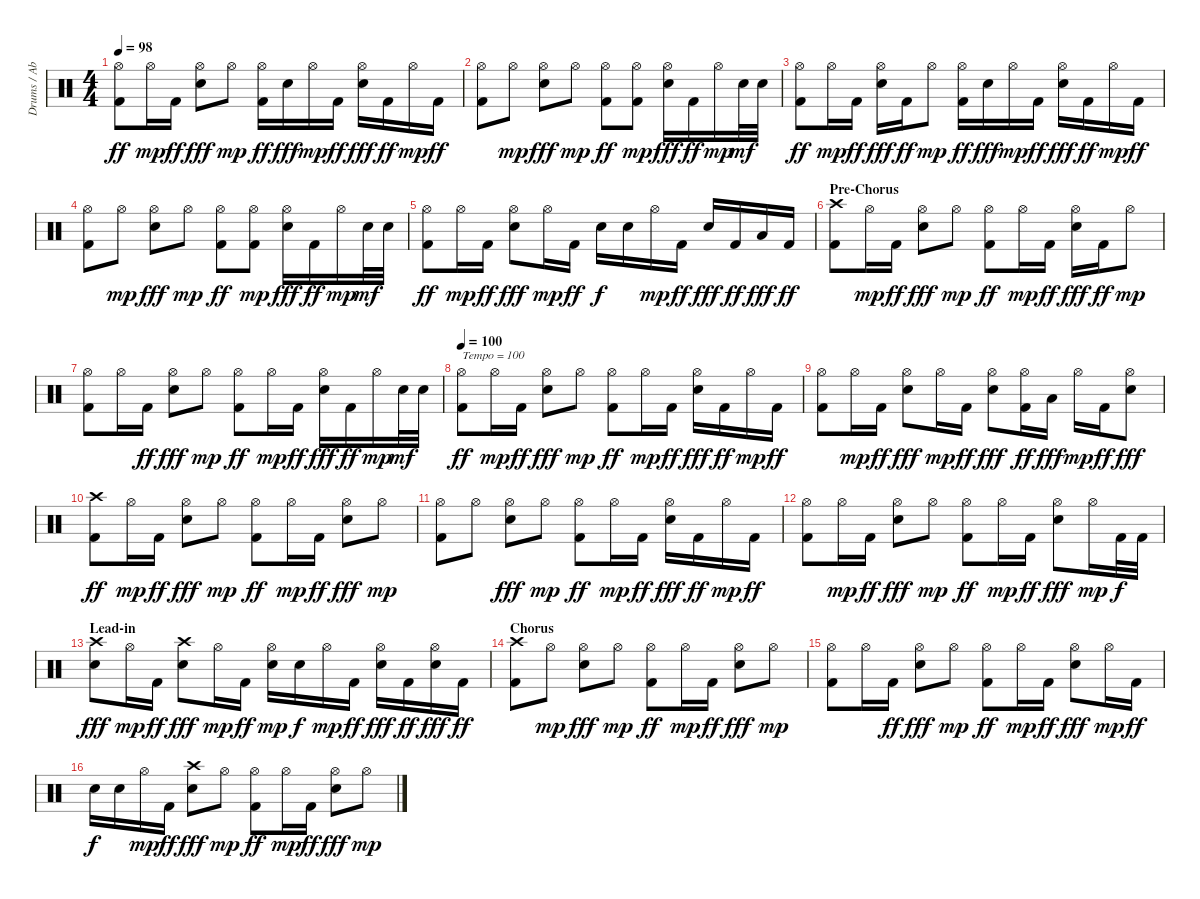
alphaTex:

\track ("Drums / Abe Cunningham" "Drums / Ab") {instrument percussion}
\staff {score}
\articulation defaults
\ts (4 4)
\tempo 98
\clef neutral
\ks c
("Hi-Hat (open)" "Kick (hit) 2").8{dy ff} "Hi-Hat (open)".16{dy mp} "Kick (hit) 2".16{dy ff} ("Hi-Hat (open)" "Electric Snare (hit)").8{dy fff} "Hi-Hat (open)".8{dy mp} ("Hi-Hat (open)" "Kick (hit) 2").16{dy ff} "Electric Snare (hit)".16{dy fff} "Hi-Hat (open)".16{dy mp} "Kick (hit) 2".16{dy ff} ("Hi-Hat (open)" "Electric Snare (hit)").16{dy fff} "Kick (hit) 2".16{dy ff} "Hi-Hat (open)".16{dy mp} "Kick (hit) 2".16{dy ff} |
("Hi-Hat (open)" "Kick (hit) 2").8 "Hi-Hat (open)".8{dy mp} ("Hi-Hat (open)" "Electric Snare (hit)").8{dy fff} "Hi-Hat (open)".8{dy mp} ("Hi-Hat (open)" "Kick (hit) 2").8{dy ff} ("Hi-Hat (open)" "Kick (hit) 2").8{dy mp} ("Hi-Hat (open)" "Electric Snare (hit)").16{dy fff} "Kick (hit) 2".16{dy ff} "Hi-Hat (open)".16{dy mp} "Electric Snare (hit)".32{dy mf} "Electric Snare (hit)".32 |
("Hi-Hat (open)" "Kick (hit) 2").8{dy ff} "Hi-Hat (open)".16{dy mp} "Kick (hit) 2".16{dy ff} ("Hi-Hat (open)" "Electric Snare (hit)").16{dy fff} "Kick (hit) 2".16{dy ff} "Hi-Hat (open)".8{dy mp} ("Hi-Hat (open)" "Kick (hit) 2").16{dy ff} "Electric Snare (hit)".16{dy fff} "Hi-Hat (open)".16{dy mp} "Kick (hit) 2".16{dy ff} ("Hi-Hat (open)" "Electric Snare (hit)").16{dy fff} "Kick (hit) 2".16{dy ff} "Hi-Hat (open)".16{dy mp} "Kick (hit) 2".16{dy ff} |
("Hi-Hat (open)" "Kick (hit) 2").8 "Hi-Hat (open)".8{dy mp} ("Hi-Hat (open)" "Electric Snare (hit)").8{dy fff} "Hi-Hat (open)".8{dy mp} ("Hi-Hat (open)" "Kick (hit) 2").8{dy ff} ("Hi-Hat (open)" "Kick (hit) 2").8{dy mp} ("Hi-Hat (open)" "Electric Snare (hit)").16{dy fff} "Kick (hit) 2".16{dy ff} "Hi-Hat (open)".16{dy mp} "Electric Snare (hit)".32{dy mf} "Electric Snare (hit)".32 |
("Hi-Hat (open)" "Kick (hit) 2").8{dy ff} "Hi-Hat (open)".16{dy mp} "Kick (hit) 2".16{dy ff} ("Hi-Hat (open)" "Electric Snare (hit)").8{dy fff} "Hi-Hat (open)".16{dy mp} "Kick (hit) 2".16{dy ff} "Electric Snare (hit)".16{dy f} "Electric Snare (hit)".16 "Hi-Hat (open)".16{dy mp} "Kick (hit) 2".16{dy ff} "Electric Snare (hit)".16{dy fff} "Kick (hit) 2".16{dy ff} "Low Tom (hit)".16{dy fff} "Kick (hit) 2".16{dy ff} |
\section ("" "Pre-Chorus")
("Crash high (hit)" "Kick (hit) 2").8 "Hi-Hat (open)".16{dy mp} "Kick (hit) 2".16{dy ff} ("Hi-Hat (open)" "Electric Snare (hit)").8{dy fff} "Hi-Hat (open)".8{dy mp} ("Hi-Hat (open)" "Kick (hit) 2").8{dy ff} "Hi-Hat (open)".16{dy mp} "Kick (hit) 2".16{dy ff} ("Hi-Hat (open)" "Electric Snare (hit)").16{dy fff} "Kick (hit) 2".16{dy ff} "Hi-Hat (open)".8{dy mp} |
("Hi-Hat (open)" "Kick (hit) 2").8 "Hi-Hat (open)".16 "Kick (hit) 2".16{dy ff} ("Hi-Hat (open)" "Electric Snare (hit)").8{dy fff} "Hi-Hat (open)".8{dy mp} ("Hi-Hat (open)" "Kick (hit) 2").8{dy ff} "Hi-Hat (open)".16{dy mp} "Kick (hit) 2".16{dy ff} ("Hi-Hat (open)" "Electric Snare (hit)").16{dy fff} "Kick (hit) 2".16{dy ff} "Hi-Hat (open)".16{dy mp} "Electric Snare (hit)".32{dy mf} "Electric Snare (hit)".32 |
\tempo 100
("Hi-Hat (open)" "Kick (hit) 2").8{txt "Tempo = 100" dy ff} "Hi-Hat (open)".16{dy mp} "Kick (hit) 2".16{dy ff} ("Hi-Hat (open)" "Electric Snare (hit)").8{dy fff} "Hi-Hat (open)".8{dy mp} ("Hi-Hat (open)" "Kick (hit) 2").8{dy ff} "Hi-Hat (open)".16{dy mp} "Kick (hit) 2".16{dy ff} ("Hi-Hat (open)" "Electric Snare (hit)").16{dy fff} "Kick (hit) 2".16{dy ff} "Hi-Hat (open)".16{dy mp} "Kick (hit) 2".16{dy ff} |
("Hi-Hat (open)" "Kick (hit) 2").8 "Hi-Hat (open)".16{dy mp} "Kick (hit) 2".16{dy ff} ("Hi-Hat (open)" "Electric Snare (hit)").8{dy fff} "Hi-Hat (open)".16{dy mp} "Kick (hit) 2".16{dy ff} ("Hi-Hat (open)" "Electric Snare (hit)").8{dy fff} ("Hi-Hat (open)" "Kick (hit) 2").16{dy ff} "Low Tom (hit)".16{dy fff} "Hi-Hat (open)".16{dy mp} "Kick (hit) 2".16{dy ff} ("Hi-Hat (open)" "Electric Snare (hit)").8{dy fff} |
("Crash high (hit)" "Kick (hit) 2").8{dy ff} "Hi-Hat (open)".16{dy mp} "Kick (hit) 2".16{dy ff} ("Hi-Hat (open)" "Electric Snare (hit)").8{dy fff} "Hi-Hat (open)".8{dy mp} ("Hi-Hat (open)" "Kick (hit) 2").8{dy ff} "Hi-Hat (open)".16{dy mp} "Kick (hit) 2".16{dy ff} ("Hi-Hat (open)" "Electric Snare (hit)").8{dy fff} "Hi-Hat (open)".8{dy mp} |
("Hi-Hat (open)" "Kick (hit) 2").8 "Hi-Hat (open)".8 ("Hi-Hat (open)" "Electric Snare (hit)").8{dy fff} "Hi-Hat (open)".8{dy mp} ("Hi-Hat (open)" "Kick (hit) 2").8{dy ff} "Hi-Hat (open)".16{dy mp} "Kick (hit) 2".16{dy ff} ("Hi-Hat (open)" "Electric Snare (hit)").16{dy fff} "Kick (hit) 2".16{dy ff} "Hi-Hat (open)".16{dy mp} "Kick (hit) 2".16{dy ff} |
("Hi-Hat (open)" "Kick (hit) 2").8 "Hi-Hat (open)".16{dy mp} "Kick (hit) 2".16{dy ff} ("Hi-Hat (open)" "Electric Snare (hit)").8{dy fff} "Hi-Hat (open)".8{dy mp} ("Hi-Hat (open)" "Kick (hit) 2").8{dy ff} "Hi-Hat (open)".16{dy mp} "Kick (hit) 2".16{dy ff} ("Hi-Hat (open)" "Electric Snare (hit)").8{dy fff} "Hi-Hat (open)".16{dy mp} "Kick (hit) 2".32{dy f} "Kick (hit) 2".32 |
\section ("" "Lead-in")
("Crash high (hit)" "Electric Snare (hit)").8{dy fff} "Hi-Hat (open)".16{dy mp} "Kick (hit) 2".16{dy ff} ("Crash high (hit)" "Electric Snare (hit)").8{dy fff} "Hi-Hat (open)".16{dy mp} "Kick (hit) 2".16{dy ff} ("Hi-Hat (open)" "Electric Snare (hit)").16{dy mp} "Electric Snare (hit)".16{dy f} "Hi-Hat (open)".16{dy mp} "Kick (hit) 2".16{dy ff} ("Hi-Hat (open)" "Electric Snare (hit)").16{dy fff} "Kick (hit) 2".16{dy ff} ("Hi-Hat (open)" "Electric Snare (hit)").16{dy fff} "Kick (hit) 2".16{dy ff} |
\section ("" "Chorus")
("Crash high (hit)" "Kick (hit) 2").8 "Hi-Hat (open)".8{dy mp} ("Hi-Hat (open)" "Electric Snare (hit)").8{dy fff} "Hi-Hat (open)".8{dy mp} ("Hi-Hat (open)" "Kick (hit) 2").8{dy ff} "Hi-Hat (open)".16{dy mp} "Kick (hit) 2".16{dy ff} ("Hi-Hat (open)" "Electric Snare (hit)").8{dy fff} "Hi-Hat (open)".8{dy mp} |
("Hi-Hat (open)" "Kick (hit) 2").8 "Hi-Hat (open)".16 "Kick (hit) 2".16{dy ff} ("Hi-Hat (open)" "Electric Snare (hit)").8{dy fff} "Hi-Hat (open)".8{dy mp} ("Hi-Hat (open)" "Kick (hit) 2").8{dy ff} "Hi-Hat (open)".16{dy mp} "Kick (hit) 2".16{dy ff} ("Hi-Hat (open)" "Electric Snare (hit)").8{dy fff} "Hi-Hat (open)".16{dy mp} "Kick (hit) 2".16{dy ff} |
"Electric Snare (hit)".16{dy f} "Electric Snare (hit)".16 "Hi-Hat (open)".16{dy mp} "Kick (hit) 2".16{dy ff} ("Crash high (hit)" "Electric Snare (hit)").8{dy fff} "Hi-Hat (open)".8{dy mp} ("Hi-Hat (open)" "Kick (hit) 2").8{dy ff} "Hi-Hat (open)".16{dy mp} "Kick (hit) 2".16{dy ff} ("Hi-Hat (open)" "Electric Snare (hit)").8{dy fff} "Hi-Hat (open)".8{dy mp}
